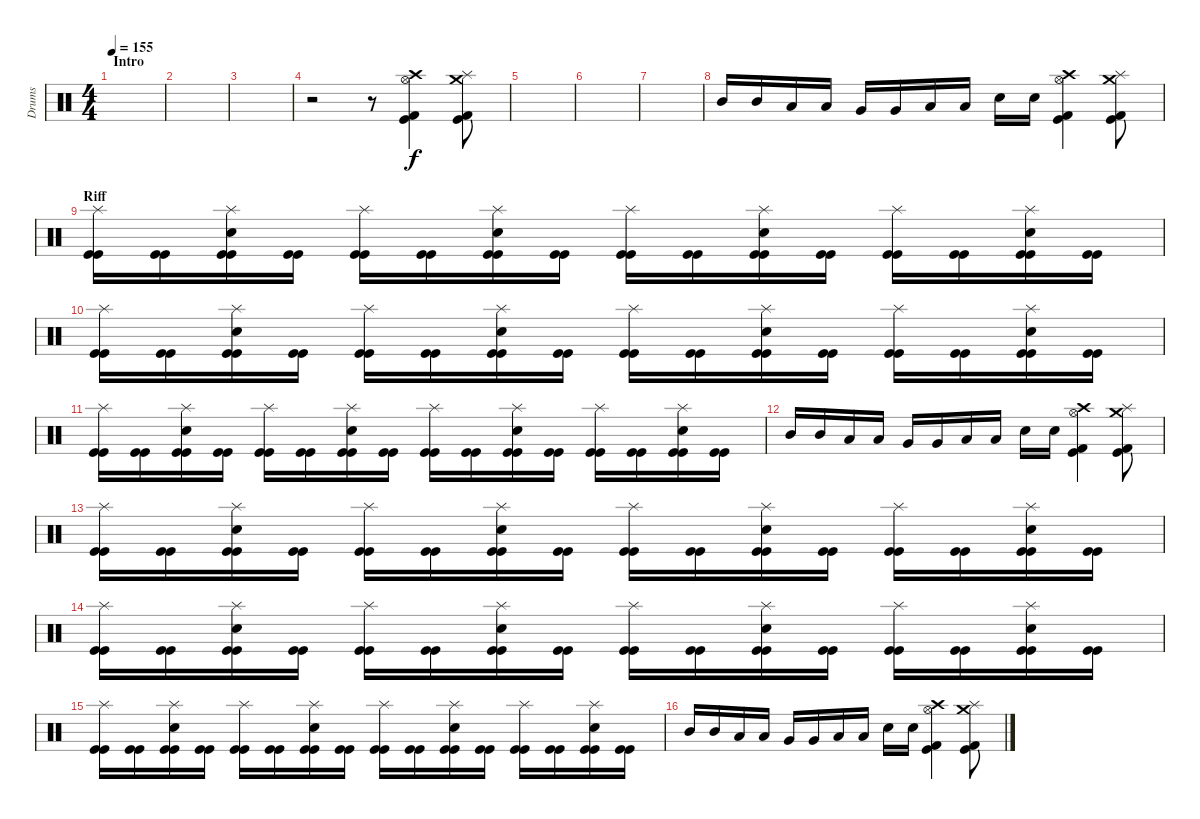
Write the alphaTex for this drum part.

\track ("Drums" "Drums") {instrument percussion}
\staff {score}
\articulation defaults
\ts (4 4)
\section ("" "Intro")
\tempo 155
\clef neutral
\ks c
|
|
|
r.2 r.8 ("Crash high (hit)" "Hi-Hat (open)" "Kick (hit)" "Kick (hit) 2").4 ("Crash medium (hit)" "Splash (hit)" "Kick (hit)" "Kick (hit) 2").8 |
|
|
|
"Mid Tom (hit)".16 "Mid Tom (hit)".16 "Low Tom (hit)".16 "Low Tom (hit)".16 "Very Low Tom (hit)".16 "Very Low Tom (hit)".16 "Low Floor Tom (hit)".16 "Low Floor Tom (hit)".16 "Snare (hit) 2".16 "Snare (hit) 2".16 ("Crash high (hit)" "Hi-Hat (open)" "Kick (hit)" "Kick (hit) 2").4 ("Crash medium (hit)" "Splash (hit)" "Kick (hit)" "Kick (hit) 2").8 |
\section ("" "Riff")
("Splash (hit)" "Kick (hit)" "Kick (hit)").16 ("Kick (hit)" "Kick (hit)").16 ("Splash (hit)" "Snare (hit) 2" "Kick (hit)" "Kick (hit)").16 ("Kick (hit)" "Kick (hit)").16 ("Splash (hit)" "Kick (hit)" "Kick (hit)").16 ("Kick (hit)" "Kick (hit)").16 ("Splash (hit)" "Snare (hit) 2" "Kick (hit)" "Kick (hit)").16 ("Kick (hit)" "Kick (hit)").16 ("Splash (hit)" "Kick (hit)" "Kick (hit)").16 ("Kick (hit)" "Kick (hit)").16 ("Splash (hit)" "Snare (hit) 2" "Kick (hit)" "Kick (hit)").16 ("Kick (hit)" "Kick (hit)").16 ("Splash (hit)" "Kick (hit)" "Kick (hit)").16 ("Kick (hit)" "Kick (hit)").16 ("Splash (hit)" "Snare (hit) 2" "Kick (hit)" "Kick (hit)").16 ("Kick (hit)" "Kick (hit)").16 |
("Splash (hit)" "Kick (hit)" "Kick (hit)").16 ("Kick (hit)" "Kick (hit)").16 ("Splash (hit)" "Snare (hit) 2" "Kick (hit)" "Kick (hit)").16 ("Kick (hit)" "Kick (hit)").16 ("Splash (hit)" "Kick (hit)" "Kick (hit)").16 ("Kick (hit)" "Kick (hit)").16 ("Splash (hit)" "Snare (hit) 2" "Kick (hit)" "Kick (hit)").16 ("Kick (hit)" "Kick (hit)").16 ("Splash (hit)" "Kick (hit)" "Kick (hit)").16 ("Kick (hit)" "Kick (hit)").16 ("Splash (hit)" "Snare (hit) 2" "Kick (hit)" "Kick (hit)").16 ("Kick (hit)" "Kick (hit)").16 ("Splash (hit)" "Kick (hit)" "Kick (hit)").16 ("Kick (hit)" "Kick (hit)").16 ("Splash (hit)" "Snare (hit) 2" "Kick (hit)" "Kick (hit)").16 ("Kick (hit)" "Kick (hit)").16 |
("Splash (hit)" "Kick (hit)" "Kick (hit)").16 ("Kick (hit)" "Kick (hit)").16 ("Splash (hit)" "Snare (hit) 2" "Kick (hit)" "Kick (hit)").16 ("Kick (hit)" "Kick (hit)").16 ("Splash (hit)" "Kick (hit)" "Kick (hit)").16 ("Kick (hit)" "Kick (hit)").16 ("Splash (hit)" "Snare (hit) 2" "Kick (hit)" "Kick (hit)").16 ("Kick (hit)" "Kick (hit)").16 ("Splash (hit)" "Kick (hit)" "Kick (hit)").16 ("Kick (hit)" "Kick (hit)").16 ("Splash (hit)" "Snare (hit) 2" "Kick (hit)" "Kick (hit)").16 ("Kick (hit)" "Kick (hit)").16 ("Splash (hit)" "Kick (hit)" "Kick (hit)").16 ("Kick (hit)" "Kick (hit)").16 ("Splash (hit)" "Snare (hit) 2" "Kick (hit)" "Kick (hit)").16 ("Kick (hit)" "Kick (hit)").16 |
"Mid Tom (hit)".16 "Mid Tom (hit)".16 "Low Tom (hit)".16 "Low Tom (hit)".16 "Very Low Tom (hit)".16 "Very Low Tom (hit)".16 "Low Floor Tom (hit)".16 "Low Floor Tom (hit)".16 "Snare (hit) 2".16 "Snare (hit) 2".16 ("Crash high (hit)" "Hi-Hat (open)" "Kick (hit)" "Kick (hit) 2").4 ("Crash medium (hit)" "Splash (hit)" "Kick (hit)" "Kick (hit) 2").8 |
("Splash (hit)" "Kick (hit)" "Kick (hit)").16 ("Kick (hit)" "Kick (hit)").16 ("Splash (hit)" "Snare (hit) 2" "Kick (hit)" "Kick (hit)").16 ("Kick (hit)" "Kick (hit)").16 ("Splash (hit)" "Kick (hit)" "Kick (hit)").16 ("Kick (hit)" "Kick (hit)").16 ("Splash (hit)" "Snare (hit) 2" "Kick (hit)" "Kick (hit)").16 ("Kick (hit)" "Kick (hit)").16 ("Splash (hit)" "Kick (hit)" "Kick (hit)").16 ("Kick (hit)" "Kick (hit)").16 ("Splash (hit)" "Snare (hit) 2" "Kick (hit)" "Kick (hit)").16 ("Kick (hit)" "Kick (hit)").16 ("Splash (hit)" "Kick (hit)" "Kick (hit)").16 ("Kick (hit)" "Kick (hit)").16 ("Splash (hit)" "Snare (hit) 2" "Kick (hit)" "Kick (hit)").16 ("Kick (hit)" "Kick (hit)").16 |
("Splash (hit)" "Kick (hit)" "Kick (hit)").16 ("Kick (hit)" "Kick (hit)").16 ("Splash (hit)" "Snare (hit) 2" "Kick (hit)" "Kick (hit)").16 ("Kick (hit)" "Kick (hit)").16 ("Splash (hit)" "Kick (hit)" "Kick (hit)").16 ("Kick (hit)" "Kick (hit)").16 ("Splash (hit)" "Snare (hit) 2" "Kick (hit)" "Kick (hit)").16 ("Kick (hit)" "Kick (hit)").16 ("Splash (hit)" "Kick (hit)" "Kick (hit)").16 ("Kick (hit)" "Kick (hit)").16 ("Splash (hit)" "Snare (hit) 2" "Kick (hit)" "Kick (hit)").16 ("Kick (hit)" "Kick (hit)").16 ("Splash (hit)" "Kick (hit)" "Kick (hit)").16 ("Kick (hit)" "Kick (hit)").16 ("Splash (hit)" "Snare (hit) 2" "Kick (hit)" "Kick (hit)").16 ("Kick (hit)" "Kick (hit)").16 |
("Splash (hit)" "Kick (hit)" "Kick (hit)").16 ("Kick (hit)" "Kick (hit)").16 ("Splash (hit)" "Snare (hit) 2" "Kick (hit)" "Kick (hit)").16 ("Kick (hit)" "Kick (hit)").16 ("Splash (hit)" "Kick (hit)" "Kick (hit)").16 ("Kick (hit)" "Kick (hit)").16 ("Splash (hit)" "Snare (hit) 2" "Kick (hit)" "Kick (hit)").16 ("Kick (hit)" "Kick (hit)").16 ("Splash (hit)" "Kick (hit)" "Kick (hit)").16 ("Kick (hit)" "Kick (hit)").16 ("Splash (hit)" "Snare (hit) 2" "Kick (hit)" "Kick (hit)").16 ("Kick (hit)" "Kick (hit)").16 ("Splash (hit)" "Kick (hit)" "Kick (hit)").16 ("Kick (hit)" "Kick (hit)").16 ("Splash (hit)" "Snare (hit) 2" "Kick (hit)" "Kick (hit)").16 ("Kick (hit)" "Kick (hit)").16 |
"Mid Tom (hit)".16 "Mid Tom (hit)".16 "Low Tom (hit)".16 "Low Tom (hit)".16 "Very Low Tom (hit)".16 "Very Low Tom (hit)".16 "Low Floor Tom (hit)".16 "Low Floor Tom (hit)".16 "Snare (hit) 2".16 "Snare (hit) 2".16 ("Crash high (hit)" "Hi-Hat (open)" "Kick (hit)" "Kick (hit) 2").4 ("Crash medium (hit)" "Splash (hit)" "Kick (hit)" "Kick (hit) 2").8
